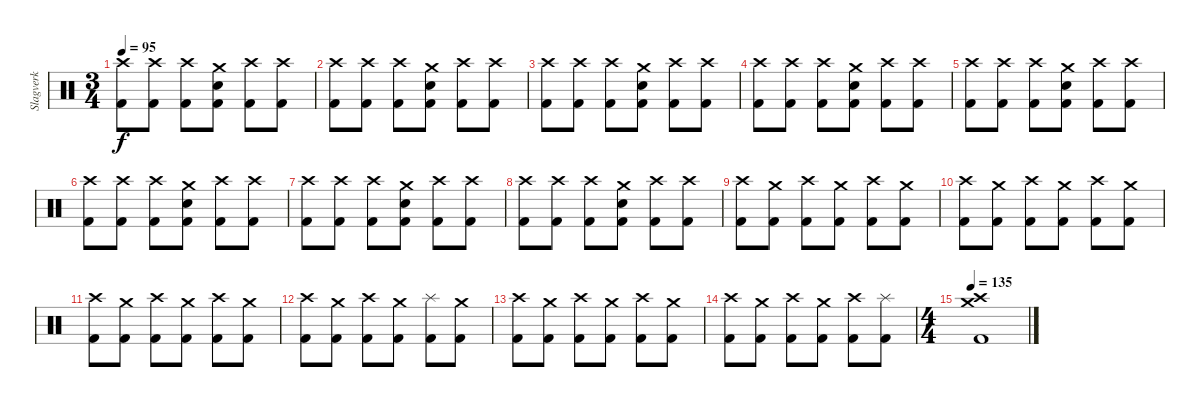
\track ("Slagverk" "Slagverk") {instrument percussion}
\staff {score}
\articulation defaults
\ts (3 4)
\tempo 95
\clef neutral
\ks c
("Crash high (hit)" "Kick (hit) 2").8{dy f} ("Crash high (hit)" "Kick (hit) 2").8 ("Crash high (hit)" "Kick (hit) 2").8 ("Crash medium (hit)" "Electric Snare (hit)" "Kick (hit) 2").8 ("Crash high (hit)" "Kick (hit) 2").8 ("Crash high (hit)" "Kick (hit) 2").8 |
("Crash high (hit)" "Kick (hit) 2").8 ("Crash high (hit)" "Kick (hit) 2").8 ("Crash high (hit)" "Kick (hit) 2").8 ("Crash medium (hit)" "Electric Snare (hit)" "Kick (hit) 2").8 ("Crash high (hit)" "Kick (hit) 2").8 ("Crash high (hit)" "Kick (hit) 2").8 |
("Crash high (hit)" "Kick (hit) 2").8 ("Crash high (hit)" "Kick (hit) 2").8 ("Crash high (hit)" "Kick (hit) 2").8 ("Crash medium (hit)" "Electric Snare (hit)" "Kick (hit) 2").8 ("Crash high (hit)" "Kick (hit) 2").8 ("Crash high (hit)" "Kick (hit) 2").8 |
("Crash high (hit)" "Kick (hit) 2").8 ("Crash high (hit)" "Kick (hit) 2").8 ("Crash high (hit)" "Kick (hit) 2").8 ("Crash medium (hit)" "Electric Snare (hit)" "Kick (hit) 2").8 ("Crash high (hit)" "Kick (hit) 2").8 ("Crash high (hit)" "Kick (hit) 2").8 |
("Crash high (hit)" "Kick (hit) 2").8 ("Crash high (hit)" "Kick (hit) 2").8 ("Crash high (hit)" "Kick (hit) 2").8 ("Crash medium (hit)" "Electric Snare (hit)" "Kick (hit) 2").8 ("Crash high (hit)" "Kick (hit) 2").8 ("Crash high (hit)" "Kick (hit) 2").8 |
("Crash high (hit)" "Kick (hit) 2").8 ("Crash high (hit)" "Kick (hit) 2").8 ("Crash high (hit)" "Kick (hit) 2").8 ("Crash medium (hit)" "Electric Snare (hit)" "Kick (hit) 2").8 ("Crash high (hit)" "Kick (hit) 2").8 ("Crash high (hit)" "Kick (hit) 2").8 |
("Crash high (hit)" "Kick (hit) 2").8 ("Crash high (hit)" "Kick (hit) 2").8 ("Crash high (hit)" "Kick (hit) 2").8 ("Crash medium (hit)" "Electric Snare (hit)" "Kick (hit) 2").8 ("Crash high (hit)" "Kick (hit) 2").8 ("Crash high (hit)" "Kick (hit) 2").8 |
("Crash high (hit)" "Kick (hit) 2").8 ("Crash high (hit)" "Kick (hit) 2").8 ("Crash high (hit)" "Kick (hit) 2").8 ("Crash medium (hit)" "Electric Snare (hit)" "Kick (hit) 2").8 ("Crash high (hit)" "Kick (hit) 2").8 ("Crash high (hit)" "Kick (hit) 2").8 |
("Crash high (hit)" "Kick (hit) 2").8 ("Crash medium (hit)" "Kick (hit) 2").8 ("Crash high (hit)" "Kick (hit) 2").8 ("Crash medium (hit)" "Kick (hit) 2").8 ("Crash high (hit)" "Kick (hit) 2").8 ("Crash medium (hit)" "Kick (hit) 2").8 |
("Crash high (hit)" "Kick (hit) 2").8 ("Crash medium (hit)" "Kick (hit) 2").8 ("Crash high (hit)" "Kick (hit) 2").8 ("Crash medium (hit)" "Kick (hit) 2").8 ("Crash high (hit)" "Kick (hit) 2").8 ("Crash medium (hit)" "Kick (hit) 2").8 |
("Crash high (hit)" "Kick (hit) 2").8 ("Crash medium (hit)" "Kick (hit) 2").8 ("Crash high (hit)" "Kick (hit) 2").8 ("Crash medium (hit)" "Kick (hit) 2").8 ("Crash high (hit)" "Kick (hit) 2").8 ("Crash medium (hit)" "Kick (hit) 2").8 |
("Crash high (hit)" "Kick (hit) 2").8 ("Crash medium (hit)" "Kick (hit) 2").8 ("Crash high (hit)" "Kick (hit) 2").8 ("Crash medium (hit)" "Kick (hit) 2").8 ("Splash (hit)" "Kick (hit) 2").8 ("Crash medium (hit)" "Kick (hit) 2").8 |
("Crash high (hit)" "Kick (hit) 2").8 ("Crash medium (hit)" "Kick (hit) 2").8 ("Crash high (hit)" "Kick (hit) 2").8 ("Crash medium (hit)" "Kick (hit) 2").8 ("Crash high (hit)" "Kick (hit) 2").8 ("Crash medium (hit)" "Kick (hit) 2").8 |
("Crash high (hit)" "Kick (hit) 2").8 ("Crash medium (hit)" "Kick (hit) 2").8 ("Crash high (hit)" "Kick (hit) 2").8 ("Crash medium (hit)" "Kick (hit) 2").8 ("Crash high (hit)" "Kick (hit) 2").8 ("Splash (hit)" "Kick (hit) 2").8 |
\ts (4 4)
\tempo 135
("Crash high (hit)" "Crash medium (hit)" "Kick (hit) 2").1
